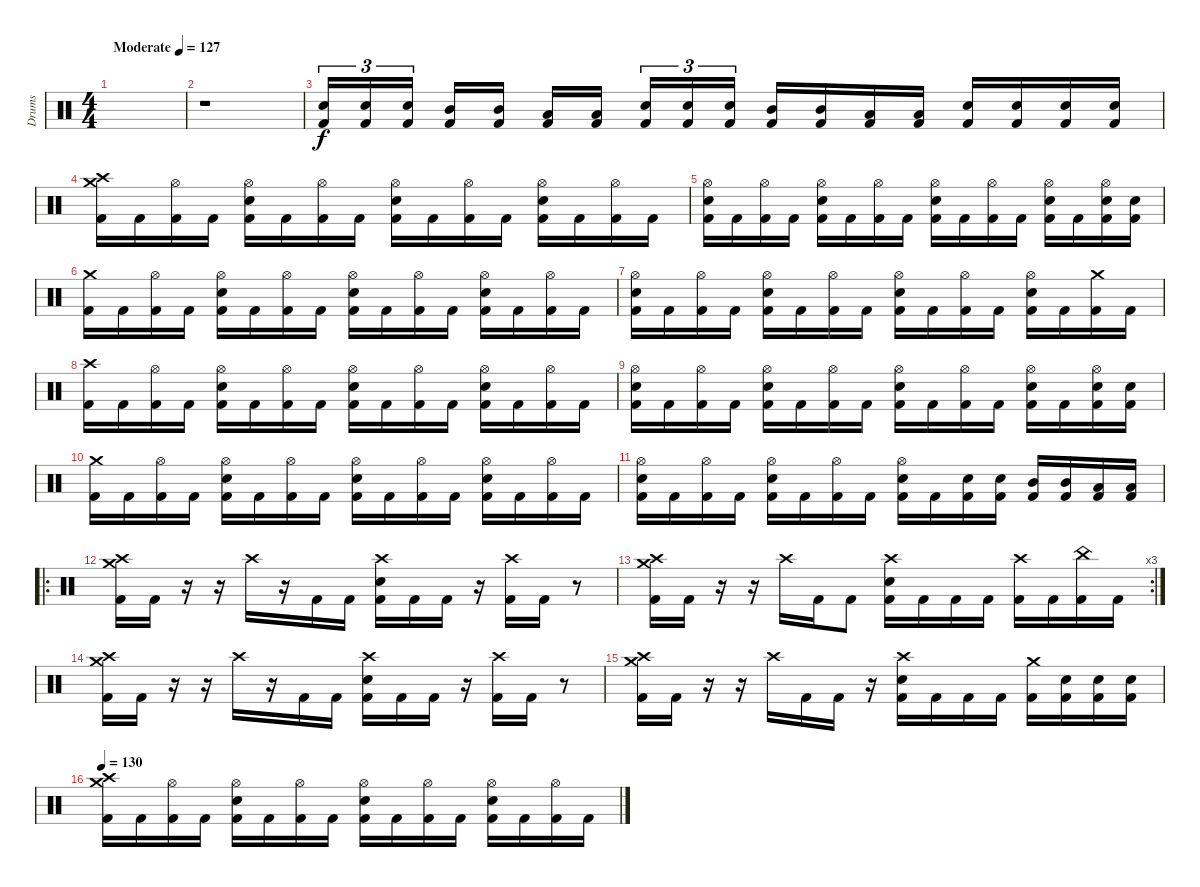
\track ("Drums" "Drums") {instrument percussion}
\staff {score}
\articulation defaults
\ts (4 4)
\tempo (127 "Moderate")
\clef neutral
\ks c
|
r.1 |
("Electric Snare (hit)" "Kick (hit) 2").16{tu (3 2)} ("Electric Snare (hit)" "Kick (hit) 2").16{tu (3 2)} ("Electric Snare (hit)" "Kick (hit) 2").16{tu (3 2) beam splitsecondary} ("Mid Tom (hit)" "Kick (hit) 2").16 ("Mid Tom (hit)" "Kick (hit) 2").16 ("Low Tom (hit)" "Kick (hit) 2").16 ("Low Tom (hit)" "Kick (hit) 2").16{beam splitsecondary} ("Electric Snare (hit)" "Kick (hit) 2").16{tu (3 2)} ("Electric Snare (hit)" "Kick (hit) 2").16{tu (3 2)} ("Electric Snare (hit)" "Kick (hit) 2").16{tu (3 2)} ("Mid Tom (hit)" "Kick (hit) 2").16 ("Mid Tom (hit)" "Kick (hit) 2").16 ("Low Tom (hit)" "Kick (hit) 2").16 ("Low Tom (hit)" "Kick (hit) 2").16 ("Electric Snare (hit)" "Kick (hit) 2").16 ("Electric Snare (hit)" "Kick (hit) 2").16 ("Electric Snare (hit)" "Kick (hit) 2").16 ("Electric Snare (hit)" "Kick (hit) 2").16 |
("Crash high (hit)" "Crash medium (hit)" "Kick (hit) 2").16 "Kick (hit) 2".16 ("Hi-Hat (open)" "Kick (hit) 2").16 "Kick (hit) 2".16 ("Hi-Hat (open)" "Electric Snare (hit)" "Kick (hit) 2").16 "Kick (hit) 2".16 ("Hi-Hat (open)" "Kick (hit) 2").16 "Kick (hit) 2".16 ("Hi-Hat (open)" "Electric Snare (hit)" "Kick (hit) 2").16 "Kick (hit) 2".16 ("Hi-Hat (open)" "Kick (hit) 2").16 "Kick (hit) 2".16 ("Hi-Hat (open)" "Electric Snare (hit)" "Kick (hit) 2").16 "Kick (hit) 2".16 ("Hi-Hat (open)" "Kick (hit) 2").16 "Kick (hit) 2".16 |
("Hi-Hat (open)" "Electric Snare (hit)" "Kick (hit) 2").16 "Kick (hit) 2".16 ("Hi-Hat (open)" "Kick (hit) 2").16 "Kick (hit) 2".16 ("Hi-Hat (open)" "Electric Snare (hit)" "Kick (hit) 2").16 "Kick (hit) 2".16 ("Hi-Hat (open)" "Kick (hit) 2").16 "Kick (hit) 2".16 ("Hi-Hat (open)" "Electric Snare (hit)" "Kick (hit) 2").16 "Kick (hit) 2".16 ("Hi-Hat (open)" "Kick (hit) 2").16 "Kick (hit) 2".16 ("Hi-Hat (open)" "Electric Snare (hit)" "Kick (hit) 2").16 "Kick (hit) 2".16 ("Hi-Hat (open)" "Electric Snare (hit)" "Kick (hit) 2").16 ("Electric Snare (hit)" "Kick (hit) 2").16 |
("Crash medium (hit)" "Kick (hit) 2").16 "Kick (hit) 2".16 ("Hi-Hat (open)" "Kick (hit) 2").16 "Kick (hit) 2".16 ("Hi-Hat (open)" "Electric Snare (hit)" "Kick (hit) 2").16 "Kick (hit) 2".16 ("Hi-Hat (open)" "Kick (hit) 2").16 "Kick (hit) 2".16 ("Hi-Hat (open)" "Electric Snare (hit)" "Kick (hit) 2").16 "Kick (hit) 2".16 ("Hi-Hat (open)" "Kick (hit) 2").16 "Kick (hit) 2".16 ("Hi-Hat (open)" "Electric Snare (hit)" "Kick (hit) 2").16 "Kick (hit) 2".16 ("Hi-Hat (open)" "Kick (hit) 2").16 "Kick (hit) 2".16 |
("Hi-Hat (open)" "Electric Snare (hit)" "Kick (hit) 2").16 "Kick (hit) 2".16 ("Hi-Hat (open)" "Kick (hit) 2").16 "Kick (hit) 2".16 ("Hi-Hat (open)" "Electric Snare (hit)" "Kick (hit) 2").16 "Kick (hit) 2".16 ("Hi-Hat (open)" "Kick (hit) 2").16 "Kick (hit) 2".16 ("Hi-Hat (open)" "Electric Snare (hit)" "Kick (hit) 2").16 "Kick (hit) 2".16 ("Hi-Hat (open)" "Kick (hit) 2").16 "Kick (hit) 2".16 ("Hi-Hat (open)" "Electric Snare (hit)" "Kick (hit) 2").16 "Kick (hit) 2".16 ("Crash medium (hit)" "Kick (hit) 2").16 "Kick (hit) 2".16 |
("Crash high (hit)" "Kick (hit) 2").16 "Kick (hit) 2".16 ("Hi-Hat (open)" "Kick (hit) 2").16 "Kick (hit) 2".16 ("Hi-Hat (open)" "Electric Snare (hit)" "Kick (hit) 2").16 "Kick (hit) 2".16 ("Hi-Hat (open)" "Kick (hit) 2").16 "Kick (hit) 2".16 ("Hi-Hat (open)" "Electric Snare (hit)" "Kick (hit) 2").16 "Kick (hit) 2".16 ("Hi-Hat (open)" "Kick (hit) 2").16 "Kick (hit) 2".16 ("Hi-Hat (open)" "Electric Snare (hit)" "Kick (hit) 2").16 "Kick (hit) 2".16 ("Hi-Hat (open)" "Kick (hit) 2").16 "Kick (hit) 2".16 |
("Hi-Hat (open)" "Electric Snare (hit)" "Kick (hit) 2").16 "Kick (hit) 2".16 ("Hi-Hat (open)" "Kick (hit) 2").16 "Kick (hit) 2".16 ("Hi-Hat (open)" "Electric Snare (hit)" "Kick (hit) 2").16 "Kick (hit) 2".16 ("Hi-Hat (open)" "Kick (hit) 2").16 "Kick (hit) 2".16 ("Hi-Hat (open)" "Electric Snare (hit)" "Kick (hit) 2").16 "Kick (hit) 2".16 ("Hi-Hat (open)" "Kick (hit) 2").16 "Kick (hit) 2".16 ("Hi-Hat (open)" "Electric Snare (hit)" "Kick (hit) 2").16 "Kick (hit) 2".16 ("Hi-Hat (open)" "Electric Snare (hit)" "Kick (hit) 2").16 ("Electric Snare (hit)" "Kick (hit) 2").16 |
("Crash medium (hit)" "Kick (hit) 2").16 "Kick (hit) 2".16 ("Hi-Hat (open)" "Kick (hit) 2").16 "Kick (hit) 2".16 ("Hi-Hat (open)" "Electric Snare (hit)" "Kick (hit) 2").16 "Kick (hit) 2".16 ("Hi-Hat (open)" "Kick (hit) 2").16 "Kick (hit) 2".16 ("Hi-Hat (open)" "Electric Snare (hit)" "Kick (hit) 2").16 "Kick (hit) 2".16 ("Hi-Hat (open)" "Kick (hit) 2").16 "Kick (hit) 2".16 ("Hi-Hat (open)" "Electric Snare (hit)" "Kick (hit) 2").16 "Kick (hit) 2".16 ("Hi-Hat (open)" "Kick (hit) 2").16 "Kick (hit) 2".16 |
("Hi-Hat (open)" "Electric Snare (hit)" "Kick (hit) 2").16 "Kick (hit) 2".16 ("Hi-Hat (open)" "Kick (hit) 2").16 "Kick (hit) 2".16 ("Hi-Hat (open)" "Electric Snare (hit)" "Kick (hit) 2").16 "Kick (hit) 2".16 ("Hi-Hat (open)" "Kick (hit) 2").16 "Kick (hit) 2".16 ("Hi-Hat (open)" "Electric Snare (hit)" "Kick (hit) 2").16 "Kick (hit) 2".16 ("Electric Snare (hit)" "Kick (hit) 2").16 ("Electric Snare (hit)" "Kick (hit) 2").16 ("Mid Tom (hit)" "Kick (hit) 2").16 ("Mid Tom (hit)" "Kick (hit) 2").16 ("Low Tom (hit)" "Kick (hit) 2").16 ("Low Tom (hit)" "Kick (hit) 2").16 |
\ro
("Crash high (hit)" "Crash medium (hit)" "Kick (hit) 2").16 "Kick (hit) 2".16 r.16 r.16 "Crash high (hit)".16 r.16 "Kick (hit) 2".16 "Kick (hit) 2".16 ("Crash high (hit)" "Electric Snare (hit)" "Kick (hit) 2").16 "Kick (hit) 2".16 "Kick (hit) 2".16 r.16 ("Crash high (hit)" "Kick (hit) 2").16 "Kick (hit) 2".16 r.8 |
\rc 3
("Crash high (hit)" "Crash medium (hit)" "Kick (hit) 2").16 "Kick (hit) 2".16 r.16 r.16 "Crash high (hit)".16 "Kick (hit) 2".16 "Kick (hit) 2".8 ("Crash high (hit)" "Electric Snare (hit)" "Kick (hit) 2").16 "Kick (hit) 2".16 "Kick (hit) 2".16 "Kick (hit) 2".16 ("Crash high (hit)" "Kick (hit) 2").16 "Kick (hit) 2".16 ("China (hit)" "Kick (hit) 2").16 "Kick (hit) 2".16 |
("Crash high (hit)" "Crash medium (hit)" "Kick (hit) 2").16 "Kick (hit) 2".16 r.16 r.16 "Crash high (hit)".16 r.16 "Kick (hit) 2".16 "Kick (hit) 2".16 ("Crash high (hit)" "Electric Snare (hit)" "Kick (hit) 2").16 "Kick (hit) 2".16 "Kick (hit) 2".16 r.16 ("Crash high (hit)" "Kick (hit) 2").16 "Kick (hit) 2".16 r.8 |
("Crash high (hit)" "Crash medium (hit)" "Kick (hit) 2").16 "Kick (hit) 2".16 r.16 r.16 "Crash high (hit)".16 "Kick (hit) 2".16 "Kick (hit) 2".16 r.16 ("Crash high (hit)" "Electric Snare (hit)" "Kick (hit) 2").16 "Kick (hit) 2".16 "Kick (hit) 2".16 "Kick (hit) 2".16 ("Crash medium (hit)" "Kick (hit) 2").16 ("Electric Snare (hit)" "Kick (hit) 2").16 ("Electric Snare (hit)" "Kick (hit) 2").16 ("Electric Snare (hit)" "Kick (hit) 2").16 |
\tempo 130
("Crash high (hit)" "Crash medium (hit)" "Kick (hit) 2").16 "Kick (hit) 2".16 ("Hi-Hat (open)" "Kick (hit) 2").16 "Kick (hit) 2".16 ("Hi-Hat (open)" "Electric Snare (hit)" "Kick (hit) 2").16 "Kick (hit) 2".16 ("Hi-Hat (open)" "Kick (hit) 2").16 "Kick (hit) 2".16 ("Hi-Hat (open)" "Electric Snare (hit)" "Kick (hit) 2").16 "Kick (hit) 2".16 ("Hi-Hat (open)" "Kick (hit) 2").16 "Kick (hit) 2".16 ("Hi-Hat (open)" "Electric Snare (hit)" "Kick (hit) 2").16 "Kick (hit) 2".16 ("Hi-Hat (open)" "Kick (hit) 2").16 "Kick (hit) 2".16
